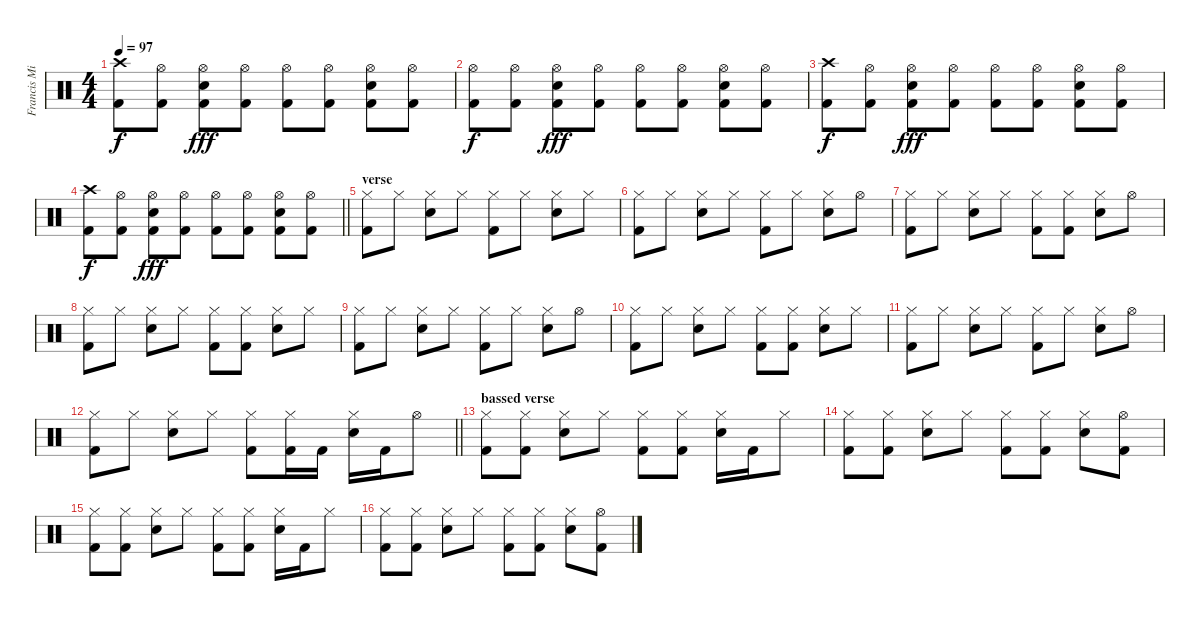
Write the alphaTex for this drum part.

\track ("Francis Mineau" "Francis Mi") {instrument percussion}
\staff {score}
\articulation defaults
\ts (4 4)
\tempo 97
\clef neutral
\ks c
("Crash high (hit)" "Kick (hit) 2").8{dy f} ("Hi-Hat (open)" "Kick (hit) 2").8 ("Hi-Hat (open)" "Snare (hit) 2" "Kick (hit) 2").8{dy fff} ("Hi-Hat (open)" "Kick (hit) 2").8 ("Hi-Hat (open)" "Kick (hit) 2").8 ("Hi-Hat (open)" "Kick (hit) 2").8 ("Hi-Hat (open)" "Snare (hit) 2" "Kick (hit) 2").8 ("Hi-Hat (open)" "Kick (hit) 2").8 |
("Hi-Hat (open)" "Kick (hit) 2").8{dy f} ("Hi-Hat (open)" "Kick (hit) 2").8 ("Hi-Hat (open)" "Snare (hit) 2" "Kick (hit) 2").8{dy fff} ("Hi-Hat (open)" "Kick (hit) 2").8 ("Hi-Hat (open)" "Kick (hit) 2").8 ("Hi-Hat (open)" "Kick (hit) 2").8 ("Hi-Hat (open)" "Snare (hit) 2" "Kick (hit) 2").8 ("Hi-Hat (open)" "Kick (hit) 2").8 |
("Crash high (hit)" "Kick (hit) 2").8{dy f} ("Hi-Hat (open)" "Kick (hit) 2").8 ("Hi-Hat (open)" "Snare (hit) 2" "Kick (hit) 2").8{dy fff} ("Hi-Hat (open)" "Kick (hit) 2").8 ("Hi-Hat (open)" "Kick (hit) 2").8 ("Hi-Hat (open)" "Kick (hit) 2").8 ("Hi-Hat (open)" "Snare (hit) 2" "Kick (hit) 2").8 ("Hi-Hat (open)" "Kick (hit) 2").8 |
\barLineRight lightlight
("Crash high (hit)" "Kick (hit) 2").8{dy f} ("Hi-Hat (open)" "Kick (hit) 2").8 ("Hi-Hat (open)" "Snare (hit) 2" "Kick (hit) 2").8{dy fff} ("Hi-Hat (open)" "Kick (hit) 2").8 ("Hi-Hat (open)" "Kick (hit) 2").8 ("Hi-Hat (open)" "Kick (hit) 2").8 ("Hi-Hat (open)" "Snare (hit) 2" "Kick (hit) 2").8 ("Hi-Hat (open)" "Kick (hit) 2").8 |
\section ("" "verse")
("Hi-Hat (closed)" "Kick (hit) 2").8 "Hi-Hat (closed)".8 ("Hi-Hat (closed)" "Snare (hit) 2").8 "Hi-Hat (closed)".8 ("Hi-Hat (closed)" "Kick (hit) 2").8 "Hi-Hat (closed)".8 ("Hi-Hat (closed)" "Snare (hit) 2").8 "Hi-Hat (closed)".8 |
("Hi-Hat (closed)" "Kick (hit) 2").8 "Hi-Hat (closed)".8 ("Hi-Hat (closed)" "Snare (hit) 2").8 "Hi-Hat (closed)".8 ("Hi-Hat (closed)" "Kick (hit) 2").8 "Hi-Hat (closed)".8 ("Hi-Hat (closed)" "Snare (hit) 2").8 "Hi-Hat (open)".8 |
("Hi-Hat (closed)" "Kick (hit) 2").8 "Hi-Hat (closed)".8 ("Hi-Hat (closed)" "Snare (hit) 2").8 "Hi-Hat (closed)".8 ("Hi-Hat (closed)" "Kick (hit) 2").8 ("Hi-Hat (closed)" "Kick (hit) 2").8 ("Hi-Hat (closed)" "Snare (hit) 2").8 "Hi-Hat (open)".8 |
("Hi-Hat (closed)" "Kick (hit) 2").8 "Hi-Hat (closed)".8 ("Hi-Hat (closed)" "Snare (hit) 2").8 "Hi-Hat (closed)".8 ("Hi-Hat (closed)" "Kick (hit) 2").8 ("Hi-Hat (closed)" "Kick (hit) 2").8 ("Hi-Hat (closed)" "Snare (hit) 2").8 "Hi-Hat (closed)".8 |
("Hi-Hat (closed)" "Kick (hit) 2").8 "Hi-Hat (closed)".8 ("Hi-Hat (closed)" "Snare (hit) 2").8 "Hi-Hat (closed)".8 ("Hi-Hat (closed)" "Kick (hit) 2").8 "Hi-Hat (closed)".8 ("Hi-Hat (closed)" "Snare (hit) 2").8 "Hi-Hat (open)".8 |
("Hi-Hat (closed)" "Kick (hit) 2").8 "Hi-Hat (closed)".8 ("Hi-Hat (closed)" "Snare (hit) 2").8 "Hi-Hat (closed)".8 ("Hi-Hat (closed)" "Kick (hit) 2").8 ("Hi-Hat (closed)" "Kick (hit) 2").8 ("Hi-Hat (closed)" "Snare (hit) 2").8 "Hi-Hat (closed)".8 |
("Hi-Hat (closed)" "Kick (hit) 2").8 "Hi-Hat (closed)".8 ("Hi-Hat (closed)" "Snare (hit) 2").8 "Hi-Hat (closed)".8 ("Hi-Hat (closed)" "Kick (hit) 2").8 "Hi-Hat (closed)".8 ("Hi-Hat (closed)" "Snare (hit) 2").8 "Hi-Hat (open)".8 |
\barLineRight lightlight
("Hi-Hat (closed)" "Kick (hit) 2").8 "Hi-Hat (closed)".8 ("Hi-Hat (closed)" "Snare (hit) 2").8 "Hi-Hat (closed)".8 ("Hi-Hat (closed)" "Kick (hit) 2").8 ("Hi-Hat (closed)" "Kick (hit) 2").16 "Kick (hit) 2".16 ("Hi-Hat (closed)" "Snare (hit) 2").16 "Kick (hit) 2".16 "Hi-Hat (open)".8 |
\section ("" "bassed verse")
("Hi-Hat (closed)" "Kick (hit) 2").8 ("Hi-Hat (closed)" "Kick (hit) 2").8 ("Hi-Hat (closed)" "Snare (hit) 2").8 "Hi-Hat (closed)".8 ("Hi-Hat (closed)" "Kick (hit) 2").8 ("Hi-Hat (closed)" "Kick (hit) 2").8 ("Hi-Hat (closed)" "Snare (hit) 2").16 "Kick (hit) 2".16 "Hi-Hat (closed)".8 |
("Hi-Hat (closed)" "Kick (hit) 2").8 ("Hi-Hat (closed)" "Kick (hit) 2").8 ("Hi-Hat (closed)" "Snare (hit) 2").8 "Hi-Hat (closed)".8 ("Hi-Hat (closed)" "Kick (hit) 2").8 ("Hi-Hat (closed)" "Kick (hit) 2").8 ("Hi-Hat (closed)" "Snare (hit) 2").8 ("Hi-Hat (open)" "Kick (hit) 2").8 |
("Hi-Hat (closed)" "Kick (hit) 2").8 ("Hi-Hat (closed)" "Kick (hit) 2").8 ("Hi-Hat (closed)" "Snare (hit) 2").8 "Hi-Hat (closed)".8 ("Hi-Hat (closed)" "Kick (hit) 2").8 ("Hi-Hat (closed)" "Kick (hit) 2").8 ("Hi-Hat (closed)" "Snare (hit) 2").16 "Kick (hit) 2".16 "Hi-Hat (closed)".8 |
("Hi-Hat (closed)" "Kick (hit) 2").8 ("Hi-Hat (closed)" "Kick (hit) 2").8 ("Hi-Hat (closed)" "Snare (hit) 2").8 "Hi-Hat (closed)".8 ("Hi-Hat (closed)" "Kick (hit) 2").8 ("Hi-Hat (closed)" "Kick (hit) 2").8 ("Hi-Hat (closed)" "Snare (hit) 2").8 ("Hi-Hat (open)" "Kick (hit) 2").8
